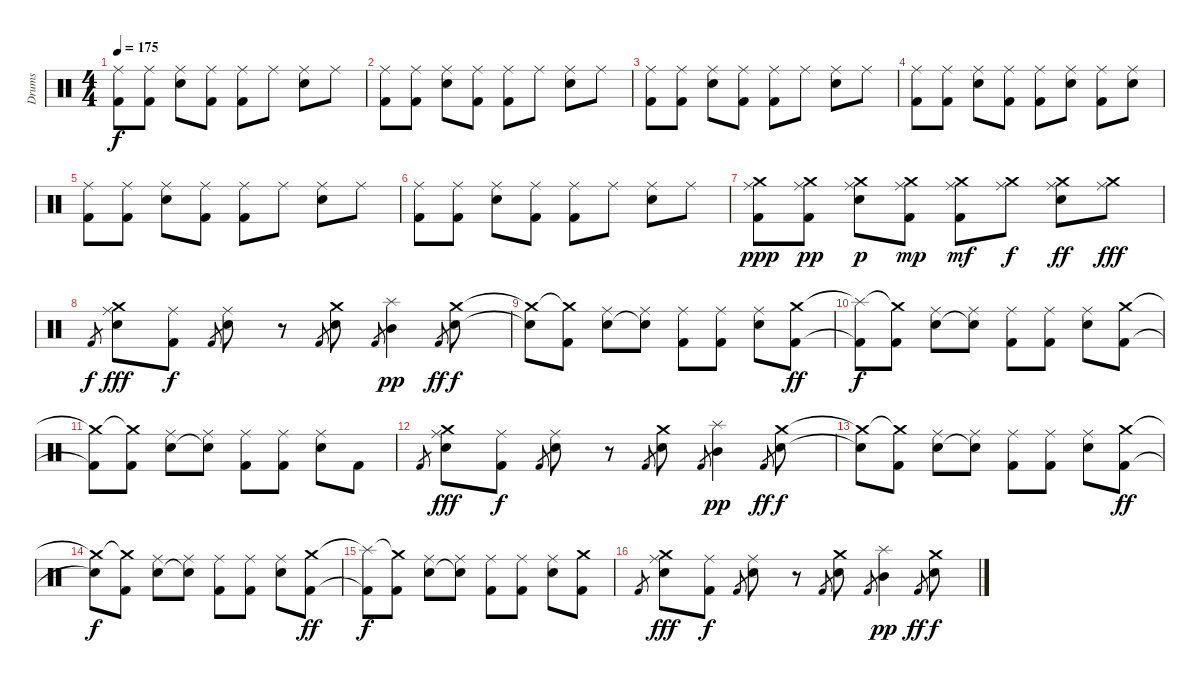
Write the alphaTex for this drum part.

\track ("Drums" "Drums") {instrument percussion}
\staff {score}
\articulation defaults
\ts (4 4)
\tempo 175
\clef neutral
\ks c
("Ride (middle)" "Kick (hit) 2").8{dy f} ("Ride (middle)" "Kick (hit) 2").8 ("Ride (middle)" "Snare (hit) 2").8 ("Ride (middle)" "Kick (hit) 2").8 ("Ride (middle)" "Kick (hit) 2").8 "Ride (middle)".8 ("Ride (middle)" "Snare (hit) 2").8 "Ride (middle)".8 |
("Ride (middle)" "Kick (hit) 2").8 ("Ride (middle)" "Kick (hit) 2").8 ("Ride (middle)" "Snare (hit) 2").8 ("Ride (middle)" "Kick (hit) 2").8 ("Ride (middle)" "Kick (hit) 2").8 "Ride (middle)".8 ("Ride (middle)" "Snare (hit) 2").8 "Ride (middle)".8 |
("Ride (middle)" "Kick (hit) 2").8 ("Ride (middle)" "Kick (hit) 2").8 ("Ride (middle)" "Snare (hit) 2").8 ("Ride (middle)" "Kick (hit) 2").8 ("Ride (middle)" "Kick (hit) 2").8 "Ride (middle)".8 ("Ride (middle)" "Snare (hit) 2").8 "Ride (middle)".8 |
("Ride (middle)" "Kick (hit) 2").8 ("Ride (middle)" "Kick (hit) 2").8 ("Ride (middle)" "Snare (hit) 2").8 ("Ride (middle)" "Kick (hit) 2").8 ("Ride (middle)" "Kick (hit) 2").8 ("Ride (middle)" "Snare (hit) 2").8 ("Ride (middle)" "Kick (hit) 2").8 ("Ride (middle)" "Snare (hit) 2").8 |
("Ride (middle)" "Kick (hit) 2").8 ("Ride (middle)" "Kick (hit) 2").8 ("Ride (middle)" "Snare (hit) 2").8 ("Ride (middle)" "Kick (hit) 2").8 ("Ride (middle)" "Kick (hit) 2").8 "Ride (middle)".8 ("Ride (middle)" "Snare (hit) 2").8 "Ride (middle)".8 |
("Ride (middle)" "Kick (hit) 2").8 ("Ride (middle)" "Kick (hit) 2").8 ("Ride (middle)" "Snare (hit) 2").8 ("Ride (middle)" "Kick (hit) 2").8 ("Ride (middle)" "Kick (hit) 2").8 "Ride (middle)".8 ("Ride (middle)" "Snare (hit) 2").8 "Ride (middle)".8 |
("Crash medium (hit)" "Ride (middle)" "Kick (hit) 2").8{dy ppp} ("Crash medium (hit)" "Ride (middle)" "Kick (hit) 2").8{dy pp} ("Crash medium (hit)" "Ride (middle)" "Snare (hit) 2").8{dy p} ("Crash medium (hit)" "Ride (middle)" "Kick (hit) 2").8{dy mp} ("Crash medium (hit)" "Ride (middle)" "Kick (hit) 2").8{dy mf} ("Crash medium (hit)" "Ride (middle)").8{dy f} ("Crash medium (hit)" "Ride (middle)" "Snare (hit) 2").8{dy ff} ("Crash medium (hit)" "Ride (middle)").8{dy fff} |
"Kick (hit) 2".8{gr dy f} ("Crash medium (hit)" "Ride (middle)" "Snare (hit) 2").8{dy fff} ("Ride (middle)" "Kick (hit) 2").8{dy f} "Kick (hit) 2".8{gr} ("Ride (middle)" "Snare (hit) 2").8 r.8 "Kick (hit) 2".8{gr} ("Crash medium (hit)" "Snare (hit) 2").8 "Kick (hit) 2".8{gr} ("Splash (hit)" "Mid Tom (hit)").4{dy pp} "Kick (hit) 2".8{gr dy ff} ("Crash medium (hit)" "Snare (hit) 2").8{dy f} |
("Crash medium (hit)"{t} "Snare (hit) 2"{t}).8 ("Crash medium (hit)"{t} "Kick (hit) 2").8 ("Ride (middle)" "Snare (hit) 2").8 ("Ride (middle)" "Snare (hit) 2"{t}).8 ("Ride (middle)" "Kick (hit) 2").8 ("Ride (middle)" "Kick (hit) 2").8 ("Ride (middle)" "Snare (hit) 2").8 ("Crash medium (hit)" "Kick (hit) 2").8{dy ff} |
("Splash (hit)"{t} "Kick (hit) 2"{t}).8{dy f} ("Crash medium (hit)"{t} "Kick (hit) 2").8 ("Ride (middle)" "Snare (hit) 2").8 ("Ride (middle)" "Snare (hit) 2"{t}).8 ("Ride (middle)" "Kick (hit) 2").8 ("Ride (middle)" "Kick (hit) 2").8 ("Ride (middle)" "Snare (hit) 2").8 ("Crash medium (hit)" "Kick (hit) 2").8 |
("Crash medium (hit)"{t} "Kick (hit) 2"{t}).8 ("Crash medium (hit)"{t} "Kick (hit) 2").8 ("Ride (middle)" "Snare (hit) 2").8 ("Ride (middle)" "Snare (hit) 2"{t}).8 ("Ride (middle)" "Kick (hit) 2").8 ("Ride (middle)" "Kick (hit) 2").8 ("Ride (middle)" "Snare (hit) 2").8 "Kick (hit) 2".8 |
"Kick (hit) 2".8{gr} ("Crash medium (hit)" "Ride (middle)" "Snare (hit) 2").8{dy fff} ("Ride (middle)" "Kick (hit) 2").8{dy f} "Kick (hit) 2".8{gr} ("Ride (middle)" "Snare (hit) 2").8 r.8 "Kick (hit) 2".8{gr} ("Crash medium (hit)" "Snare (hit) 2").8 "Kick (hit) 2".8{gr} ("Splash (hit)" "Mid Tom (hit)").4{dy pp} "Kick (hit) 2".8{gr dy ff} ("Crash medium (hit)" "Snare (hit) 2").8{dy f} |
("Crash medium (hit)"{t} "Snare (hit) 2"{t}).8 ("Crash medium (hit)"{t} "Kick (hit) 2").8 ("Ride (middle)" "Snare (hit) 2").8 ("Ride (middle)" "Snare (hit) 2"{t}).8 ("Ride (middle)" "Kick (hit) 2").8 ("Ride (middle)" "Kick (hit) 2").8 ("Ride (middle)" "Snare (hit) 2").8 ("Crash medium (hit)" "Kick (hit) 2").8{dy ff} |
("Crash medium (hit)"{t} "Snare (hit) 2"{t}).8{dy f} ("Crash medium (hit)"{t} "Kick (hit) 2").8 ("Ride (middle)" "Snare (hit) 2").8 ("Ride (middle)" "Snare (hit) 2"{t}).8 ("Ride (middle)" "Kick (hit) 2").8 ("Ride (middle)" "Kick (hit) 2").8 ("Ride (middle)" "Snare (hit) 2").8 ("Crash medium (hit)" "Kick (hit) 2").8{dy ff} |
("Splash (hit)"{t} "Kick (hit) 2"{t}).8{dy f} ("Crash medium (hit)"{t} "Kick (hit) 2").8 ("Ride (middle)" "Snare (hit) 2").8 ("Ride (middle)" "Snare (hit) 2"{t}).8 ("Ride (middle)" "Kick (hit) 2").8 ("Ride (middle)" "Kick (hit) 2").8 ("Ride (middle)" "Snare (hit) 2").8 ("Crash medium (hit)" "Kick (hit) 2").8 |
"Kick (hit) 2".8{gr} ("Crash medium (hit)" "Ride (middle)" "Snare (hit) 2").8{dy fff} ("Ride (middle)" "Kick (hit) 2").8{dy f} "Kick (hit) 2".8{gr} ("Ride (middle)" "Snare (hit) 2").8 r.8 "Kick (hit) 2".8{gr} ("Crash medium (hit)" "Snare (hit) 2").8 "Kick (hit) 2".8{gr} ("Splash (hit)" "Mid Tom (hit)").4{dy pp} "Kick (hit) 2".8{gr dy ff} ("Crash medium (hit)" "Snare (hit) 2").8{dy f}
